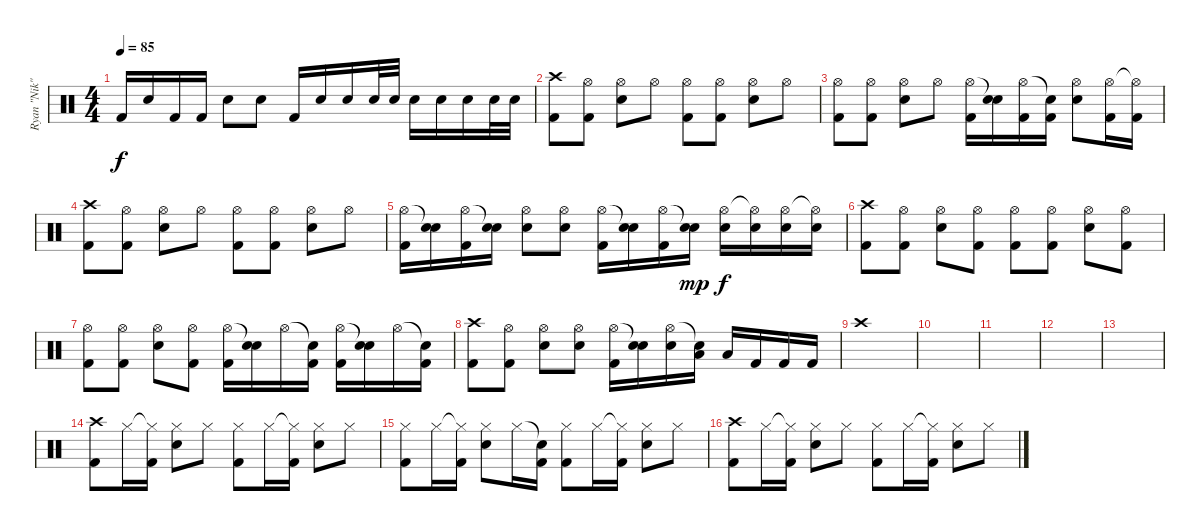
\track ("Ryan \"Nik\" Vikedal (Drums)" "Ryan \"Nik\"") {instrument percussion}
\staff {score}
\articulation defaults
\ts (4 4)
\tempo 85
\clef neutral
\ks c "Kick (hit) 2".16{dy f} "Electric Snare (hit)".16 "Kick (hit) 2".16 "Kick (hit) 2".16 "Electric Snare (hit)".8 "Electric Snare (hit)".8 "Kick (hit) 2".16 "Electric Snare (hit)".16 "Electric Snare (hit)".16 "Electric Snare (hit)".32 "Electric Snare (hit)".32 "Electric Snare (hit)".16 "Electric Snare (hit)".16 "Electric Snare (hit)".16 "Electric Snare (hit)".32 "Electric Snare (hit)".32
|
("Crash high (hit)" "Kick (hit) 2").8 ("Hi-Hat (open)" "Kick (hit) 2").8 ("Hi-Hat (open)" "Electric Snare (hit)").8 "Hi-Hat (open)".8 ("Hi-Hat (open)" "Kick (hit) 2").8 ("Hi-Hat (open)" "Kick (hit) 2").8 ("Hi-Hat (open)" "Electric Snare (hit)").8 "Hi-Hat (open)".8 |
("Hi-Hat (open)" "Kick (hit) 2").8 ("Hi-Hat (open)" "Kick (hit) 2").8 ("Hi-Hat (open)" "Electric Snare (hit)").8 "Hi-Hat (open)".8 ("Hi-Hat (open)" "Kick (hit) 2").16 ("Snare (hit)"{t} "Electric Snare (hit)").16 ("Hi-Hat (open)" "Kick (hit) 2").16 ("Snare (hit)"{t} "Kick (hit) 2").16 ("Hi-Hat (open)" "Electric Snare (hit)").8 ("Hi-Hat (open)" "Kick (hit) 2").16 ("Hi-Hat (open)"{t} "Kick (hit) 2").16 |
("Crash high (hit)" "Kick (hit) 2").8 ("Hi-Hat (open)" "Kick (hit) 2").8 ("Hi-Hat (open)" "Electric Snare (hit)").8 "Hi-Hat (open)".8 ("Hi-Hat (open)" "Kick (hit) 2").8 ("Hi-Hat (open)" "Kick (hit) 2").8 ("Hi-Hat (open)" "Electric Snare (hit)").8 "Hi-Hat (open)".8 |
("Hi-Hat (open)" "Kick (hit) 2").16 ("Snare (hit)"{t} "Electric Snare (hit)").16 ("Hi-Hat (open)" "Kick (hit) 2").16 ("Snare (hit)"{t} "Electric Snare (hit)").16 ("Hi-Hat (open)" "Electric Snare (hit)").8 ("Hi-Hat (open)" "Electric Snare (hit)").8 ("Hi-Hat (open)" "Kick (hit) 2").16 ("Snare (hit)"{t} "Electric Snare (hit)").16 ("Hi-Hat (open)" "Kick (hit) 2").16 ("Snare (hit)"{t} "Electric Snare (hit)").16{dy mp} ("Hi-Hat (open)" "Electric Snare (hit)").16{dy f} ("Hi-Hat (open)"{t} "Electric Snare (hit)").16 ("Hi-Hat (open)" "Electric Snare (hit)").16 ("Hi-Hat (open)"{t} "Electric Snare (hit)").16 |
("Crash high (hit)" "Kick (hit) 2").8 ("Hi-Hat (open)" "Kick (hit) 2").8 ("Hi-Hat (open)" "Electric Snare (hit)").8 ("Hi-Hat (open)" "Kick (hit) 2").8 ("Hi-Hat (open)" "Kick (hit) 2").8 ("Hi-Hat (open)" "Kick (hit) 2").8 ("Hi-Hat (open)" "Electric Snare (hit)").8 ("Hi-Hat (open)" "Kick (hit) 2").8 |
("Hi-Hat (open)" "Kick (hit) 2").8 ("Hi-Hat (open)" "Kick (hit) 2").8 ("Hi-Hat (open)" "Electric Snare (hit)").8 ("Hi-Hat (open)" "Kick (hit) 2").8 ("Hi-Hat (open)" "Kick (hit) 2").16 ("Snare (hit)"{t} "Electric Snare (hit)").16 "Hi-Hat (open)".16 ("Snare (hit)"{t} "Kick (hit) 2").16 ("Hi-Hat (open)" "Kick (hit) 2").16 ("Snare (hit)"{t} "Electric Snare (hit)").16 "Hi-Hat (open)".16 ("Snare (hit)"{t} "Kick (hit) 2").16 |
("Crash high (hit)" "Kick (hit) 2").8 ("Hi-Hat (open)" "Kick (hit) 2").8 ("Hi-Hat (open)" "Electric Snare (hit)").8 ("Hi-Hat (open)" "Electric Snare (hit)").8 ("Hi-Hat (open)" "Kick (hit) 2").16 ("Snare (hit)"{t} "Electric Snare (hit)").16 ("Hi-Hat (open)" "Electric Snare (hit)").16 ("Snare (hit)"{t} "Low Tom (hit)").16 "Low Tom (hit)".16 "Kick (hit) 2".16 "Kick (hit) 2".16 "Kick (hit) 2".16 |
"Crash high (hit)".1 |
|
|
|
|
("Crash high (hit)" "Kick (hit) 2").8 "Hi-Hat (closed)".16 ("Hi-Hat (closed)"{t} "Kick (hit) 2").16 ("Hi-Hat (closed)" "Electric Snare (hit)").8 "Hi-Hat (closed)".8 ("Hi-Hat (closed)" "Kick (hit) 2").8 "Hi-Hat (closed)".16 ("Hi-Hat (closed)"{t} "Kick (hit) 2").16 ("Hi-Hat (closed)" "Electric Snare (hit)").8 "Hi-Hat (closed)".8 |
("Hi-Hat (closed)" "Kick (hit) 2").8 "Hi-Hat (closed)".16 ("Hi-Hat (closed)"{t} "Kick (hit) 2").16 ("Hi-Hat (closed)" "Electric Snare (hit)").8 "Hi-Hat (closed)".16 ("Snare (hit)"{t} "Kick (hit) 2").16 ("Hi-Hat (closed)" "Kick (hit) 2").8 "Hi-Hat (closed)".16 ("Hi-Hat (closed)"{t} "Kick (hit) 2").16 ("Hi-Hat (closed)" "Electric Snare (hit)").8 "Hi-Hat (closed)".8 |
("Crash high (hit)" "Kick (hit) 2").8 "Hi-Hat (closed)".16 ("Hi-Hat (closed)"{t} "Kick (hit) 2").16 ("Hi-Hat (closed)" "Electric Snare (hit)").8 "Hi-Hat (closed)".8 ("Hi-Hat (closed)" "Kick (hit) 2").8 "Hi-Hat (closed)".16 ("Hi-Hat (closed)"{t} "Kick (hit) 2").16 ("Hi-Hat (closed)" "Electric Snare (hit)").8 "Hi-Hat (closed)".8
